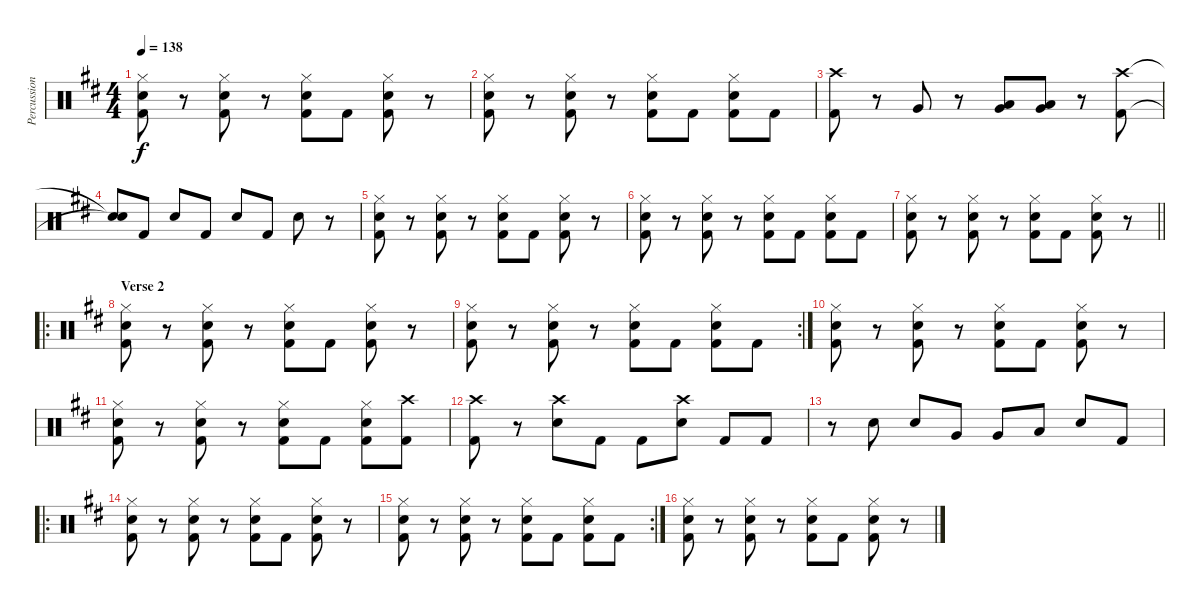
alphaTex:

\track ("Percussion" "Percussion") {instrument percussion}
\staff {score}
\articulation defaults
\ts (4 4)
\tempo 138
\clef neutral
\ks d
("Hi-Hat (closed)" "Snare (hit) 2" "Kick (hit) 2").8{dy f} r.8 ("Hi-Hat (closed)" "Snare (hit) 2" "Kick (hit) 2").8 r.8 ("Hi-Hat (closed)" "Snare (hit) 2" "Kick (hit) 2").8 "Kick (hit) 2".8 ("Hi-Hat (closed)" "Snare (hit) 2" "Kick (hit) 2").8 r.8 |
("Hi-Hat (closed)" "Snare (hit) 2" "Kick (hit) 2").8 r.8 ("Hi-Hat (closed)" "Snare (hit) 2" "Kick (hit) 2").8 r.8 ("Hi-Hat (closed)" "Snare (hit) 2" "Kick (hit) 2").8 "Kick (hit) 2".8 ("Hi-Hat (closed)" "Snare (hit) 2" "Kick (hit) 2").8 "Kick (hit) 2".8 |
("Crash high (hit)" "Kick (hit) 2").8 r.8 "Very Low Tom (hit)".8 r.8 ("Very Low Tom (hit)" "Low Floor Tom (hit)").8 ("Very Low Tom (hit)" "Low Floor Tom (hit)").8 r.8 ("Crash high (hit)" "Kick (hit) 2").8 |
("Snare (hit)"{t} "Snare (hit)"{t}).8 "Kick (hit) 2".8 "Snare (hit) 2".8 "Kick (hit) 2".8 "Snare (hit) 2".8 "Kick (hit) 2".8 "Snare (hit) 2".8 r.8 |
("Hi-Hat (closed)" "Snare (hit) 2" "Kick (hit) 2").8 r.8 ("Hi-Hat (closed)" "Snare (hit) 2" "Kick (hit) 2").8 r.8 ("Hi-Hat (closed)" "Snare (hit) 2" "Kick (hit) 2").8 "Kick (hit) 2".8 ("Hi-Hat (closed)" "Snare (hit) 2" "Kick (hit) 2").8 r.8 |
("Hi-Hat (closed)" "Snare (hit) 2" "Kick (hit) 2").8 r.8 ("Hi-Hat (closed)" "Snare (hit) 2" "Kick (hit) 2").8 r.8 ("Hi-Hat (closed)" "Snare (hit) 2" "Kick (hit) 2").8 "Kick (hit) 2".8 ("Hi-Hat (closed)" "Snare (hit) 2" "Kick (hit) 2").8 "Kick (hit) 2".8 |
\barLineRight lightlight
("Hi-Hat (closed)" "Snare (hit) 2" "Kick (hit) 2").8 r.8 ("Hi-Hat (closed)" "Snare (hit) 2" "Kick (hit) 2").8 r.8 ("Hi-Hat (closed)" "Snare (hit) 2" "Kick (hit) 2").8 "Kick (hit) 2".8 ("Hi-Hat (closed)" "Snare (hit) 2" "Kick (hit) 2").8 r.8 |
\ro
\section ("" "Verse 2")
("Hi-Hat (closed)" "Snare (hit) 2" "Kick (hit) 2").8 r.8 ("Hi-Hat (closed)" "Snare (hit) 2" "Kick (hit) 2").8 r.8 ("Hi-Hat (closed)" "Snare (hit) 2" "Kick (hit) 2").8 "Kick (hit) 2".8 ("Hi-Hat (closed)" "Snare (hit) 2" "Kick (hit) 2").8 r.8 |
\rc 2
("Hi-Hat (closed)" "Snare (hit) 2" "Kick (hit) 2").8 r.8 ("Hi-Hat (closed)" "Snare (hit) 2" "Kick (hit) 2").8 r.8 ("Hi-Hat (closed)" "Snare (hit) 2" "Kick (hit) 2").8 "Kick (hit) 2".8 ("Hi-Hat (closed)" "Snare (hit) 2" "Kick (hit) 2").8 "Kick (hit) 2".8 |
("Hi-Hat (closed)" "Snare (hit) 2" "Kick (hit) 2").8 r.8 ("Hi-Hat (closed)" "Snare (hit) 2" "Kick (hit) 2").8 r.8 ("Hi-Hat (closed)" "Snare (hit) 2" "Kick (hit) 2").8 "Kick (hit) 2".8 ("Hi-Hat (closed)" "Snare (hit) 2" "Kick (hit) 2").8 r.8 |
("Hi-Hat (closed)" "Snare (hit) 2" "Kick (hit) 2").8 r.8 ("Hi-Hat (closed)" "Snare (hit) 2" "Kick (hit) 2").8 r.8 ("Hi-Hat (closed)" "Snare (hit) 2" "Kick (hit) 2").8 "Kick (hit) 2".8 ("Hi-Hat (closed)" "Snare (hit) 2" "Kick (hit) 2").8 ("Crash high (hit)" "Kick (hit) 2").8 |
("Crash high (hit)" "Kick (hit) 2").8 r.8 ("Crash high (hit)" "Snare (hit) 2").8 "Kick (hit) 2".8 "Kick (hit) 2".8 ("Crash high (hit)" "Snare (hit) 2").8 "Kick (hit) 2".8 "Kick (hit) 2".8 |
r.8 "Snare (hit) 2".8 "Snare (hit) 2".8 "Very Low Tom (hit)".8 "Very Low Tom (hit)".8 "Low Floor Tom (hit)".8 "Snare (hit) 2".8 "Kick (hit) 2".8 |
\ro
("Hi-Hat (closed)" "Snare (hit) 2" "Kick (hit) 2").8 r.8 ("Hi-Hat (closed)" "Snare (hit) 2" "Kick (hit) 2").8 r.8 ("Hi-Hat (closed)" "Snare (hit) 2" "Kick (hit) 2").8 "Kick (hit) 2".8 ("Hi-Hat (closed)" "Snare (hit) 2" "Kick (hit) 2").8 r.8 |
\rc 2
("Hi-Hat (closed)" "Snare (hit) 2" "Kick (hit) 2").8 r.8 ("Hi-Hat (closed)" "Snare (hit) 2" "Kick (hit) 2").8 r.8 ("Hi-Hat (closed)" "Snare (hit) 2" "Kick (hit) 2").8 "Kick (hit) 2".8 ("Hi-Hat (closed)" "Snare (hit) 2" "Kick (hit) 2").8 "Kick (hit) 2".8 |
("Hi-Hat (closed)" "Snare (hit) 2" "Kick (hit) 2").8 r.8 ("Hi-Hat (closed)" "Snare (hit) 2" "Kick (hit) 2").8 r.8 ("Hi-Hat (closed)" "Snare (hit) 2" "Kick (hit) 2").8 "Kick (hit) 2".8 ("Hi-Hat (closed)" "Snare (hit) 2" "Kick (hit) 2").8 r.8
